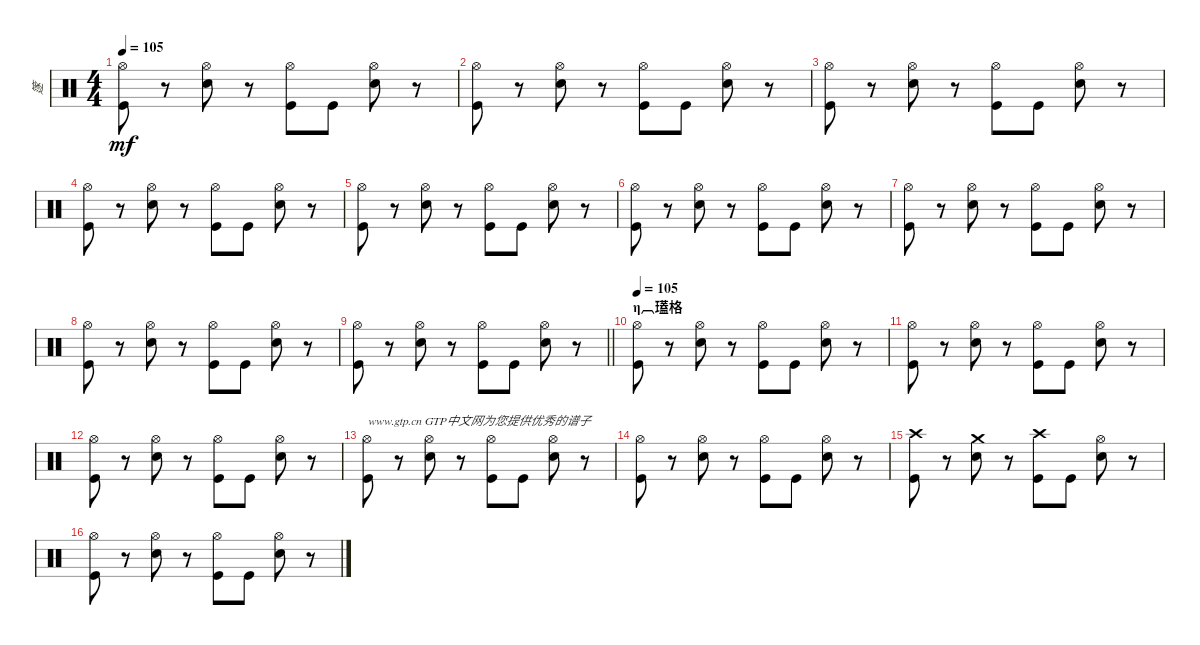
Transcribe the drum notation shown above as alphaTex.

\track ("篴" "篴") {instrument percussion}
\staff {score}
\articulation defaults
\ts (4 4)
\tempo 105
\clef neutral
\ks c
("Hi-Hat (open)" "Kick (hit)").8{dy mf} r.8 ("Hi-Hat (open)" "Snare (hit) 2").8 r.8 ("Hi-Hat (open)" "Kick (hit)").8 "Kick (hit)".8 ("Hi-Hat (open)" "Snare (hit) 2").8 r.8 |
("Hi-Hat (open)" "Kick (hit)").8 r.8 ("Hi-Hat (open)" "Snare (hit) 2").8 r.8 ("Hi-Hat (open)" "Kick (hit)").8 "Kick (hit)".8 ("Hi-Hat (open)" "Snare (hit) 2").8 r.8 |
("Hi-Hat (open)" "Kick (hit)").8 r.8 ("Hi-Hat (open)" "Snare (hit) 2").8 r.8 ("Hi-Hat (open)" "Kick (hit)").8 "Kick (hit)".8 ("Hi-Hat (open)" "Snare (hit) 2").8 r.8 |
("Hi-Hat (open)" "Kick (hit)").8 r.8 ("Hi-Hat (open)" "Snare (hit) 2").8 r.8 ("Hi-Hat (open)" "Kick (hit)").8 "Kick (hit)".8 ("Hi-Hat (open)" "Snare (hit) 2").8 r.8 |
("Hi-Hat (open)" "Kick (hit)").8 r.8 ("Hi-Hat (open)" "Snare (hit) 2").8 r.8 ("Hi-Hat (open)" "Kick (hit)").8 "Kick (hit)".8 ("Hi-Hat (open)" "Snare (hit) 2").8 r.8 |
("Hi-Hat (open)" "Kick (hit)").8 r.8 ("Hi-Hat (open)" "Snare (hit) 2").8 r.8 ("Hi-Hat (open)" "Kick (hit)").8 "Kick (hit)".8 ("Hi-Hat (open)" "Snare (hit) 2").8 r.8 |
("Hi-Hat (open)" "Kick (hit)").8 r.8 ("Hi-Hat (open)" "Snare (hit) 2").8 r.8 ("Hi-Hat (open)" "Kick (hit)").8 "Kick (hit)".8 ("Hi-Hat (open)" "Snare (hit) 2").8 r.8 |
("Hi-Hat (open)" "Kick (hit)").8 r.8 ("Hi-Hat (open)" "Snare (hit) 2").8 r.8 ("Hi-Hat (open)" "Kick (hit)").8 "Kick (hit)".8 ("Hi-Hat (open)" "Snare (hit) 2").8 r.8 |
\barLineRight lightlight
("Hi-Hat (open)" "Kick (hit)").8 r.8 ("Hi-Hat (open)" "Snare (hit) 2").8 r.8 ("Hi-Hat (open)" "Kick (hit)").8 "Kick (hit)".8 ("Hi-Hat (open)" "Snare (hit) 2").8 r.8 |
\section ("" "η︹瓂格")
\tempo 105
("Hi-Hat (open)" "Kick (hit)").8 r.8 ("Hi-Hat (open)" "Snare (hit) 2").8 r.8 ("Hi-Hat (open)" "Kick (hit)").8 "Kick (hit)".8 ("Hi-Hat (open)" "Snare (hit) 2").8 r.8 |
("Hi-Hat (open)" "Kick (hit)").8 r.8 ("Hi-Hat (open)" "Snare (hit) 2").8 r.8 ("Hi-Hat (open)" "Kick (hit)").8 "Kick (hit)".8 ("Hi-Hat (open)" "Snare (hit) 2").8 r.8 |
("Hi-Hat (open)" "Kick (hit)").8 r.8 ("Hi-Hat (open)" "Snare (hit) 2").8 r.8 ("Hi-Hat (open)" "Kick (hit)").8 "Kick (hit)".8 ("Hi-Hat (open)" "Snare (hit) 2").8 r.8 |
("Hi-Hat (open)" "Kick (hit)").8{txt "www.gtp.cn GTP中文网为您提供优秀的谱子"} r.8 ("Hi-Hat (open)" "Snare (hit) 2").8 r.8 ("Hi-Hat (open)" "Kick (hit)").8 "Kick (hit)".8 ("Hi-Hat (open)" "Snare (hit) 2").8 r.8 |
("Hi-Hat (open)" "Kick (hit)").8 r.8 ("Hi-Hat (open)" "Snare (hit) 2").8 r.8 ("Hi-Hat (open)" "Kick (hit)").8 "Kick (hit)".8 ("Hi-Hat (open)" "Snare (hit) 2").8 r.8 |
("Crash high (hit)" "Kick (hit)").8 r.8 ("Crash medium (hit)" "Snare (hit) 2").8 r.8 ("Crash high (hit)" "Kick (hit)").8 "Kick (hit)".8 ("Hi-Hat (open)" "Snare (hit) 2").8 r.8 |
("Hi-Hat (open)" "Kick (hit)").8 r.8 ("Hi-Hat (open)" "Snare (hit) 2").8 r.8 ("Hi-Hat (open)" "Kick (hit)").8 "Kick (hit)".8 ("Hi-Hat (open)" "Snare (hit) 2").8 r.8
